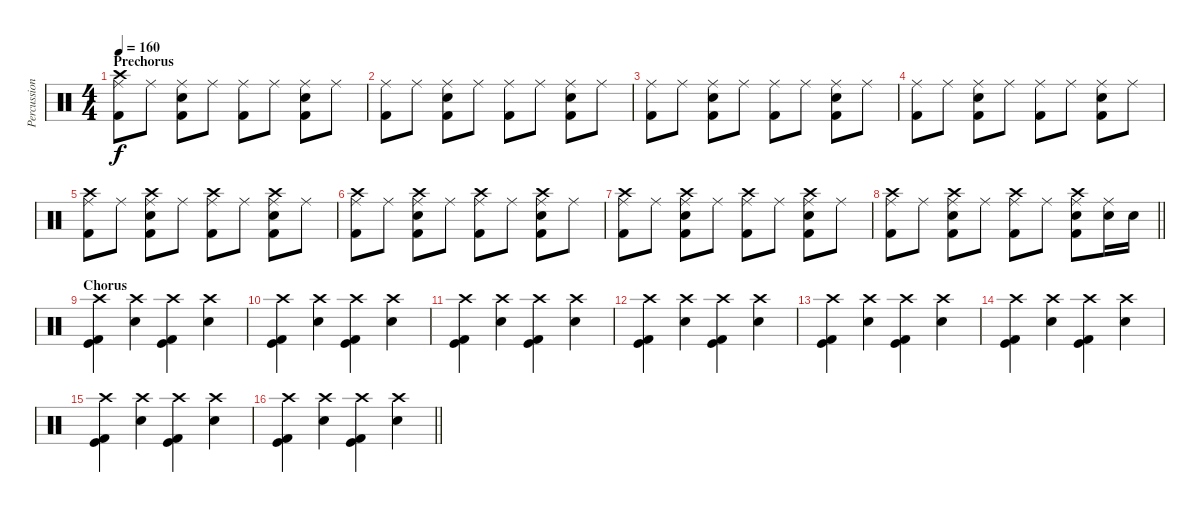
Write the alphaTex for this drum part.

\track ("Percussion" "Percussion") {instrument percussion}
\staff {score}
\articulation defaults
\ts (4 4)
\section ("" "Prechorus")
\tempo 160
\clef neutral
\ks c
("Ride (middle)" "Crash high (hit)" "Kick (hit) 2").8{dy f} "Ride (middle)".8 ("Ride (middle)" "Snare (hit) 2" "Kick (hit) 2").8 "Ride (middle)".8 ("Ride (middle)" "Kick (hit) 2").8 "Ride (middle)".8 ("Ride (middle)" "Snare (hit) 2" "Kick (hit) 2").8 "Ride (middle)".8 |
("Ride (middle)" "Kick (hit) 2").8 "Ride (middle)".8 ("Ride (middle)" "Snare (hit) 2" "Kick (hit) 2").8 "Ride (middle)".8 ("Ride (middle)" "Kick (hit) 2").8 "Ride (middle)".8 ("Ride (middle)" "Snare (hit) 2" "Kick (hit) 2").8 "Ride (middle)".8 |
("Ride (middle)" "Kick (hit) 2").8 "Ride (middle)".8 ("Ride (middle)" "Snare (hit) 2" "Kick (hit) 2").8 "Ride (middle)".8 ("Ride (middle)" "Kick (hit) 2").8 "Ride (middle)".8 ("Ride (middle)" "Snare (hit) 2" "Kick (hit) 2").8 "Ride (middle)".8 |
("Ride (middle)" "Kick (hit) 2").8 "Ride (middle)".8 ("Ride (middle)" "Snare (hit) 2" "Kick (hit) 2").8 "Ride (middle)".8 ("Ride (middle)" "Kick (hit) 2").8 "Ride (middle)".8 ("Ride (middle)" "Snare (hit) 2" "Kick (hit) 2").8 "Ride (middle)".8 |
("Ride (middle)" "Crash high (hit)" "Kick (hit) 2").8 "Ride (middle)".8 ("Ride (middle)" "Crash high (hit)" "Snare (hit) 2" "Kick (hit) 2").8 "Ride (middle)".8 ("Ride (middle)" "Crash high (hit)" "Kick (hit) 2").8 "Ride (middle)".8 ("Ride (middle)" "Crash high (hit)" "Snare (hit) 2" "Kick (hit) 2").8 "Ride (middle)".8 |
("Ride (middle)" "Crash high (hit)" "Kick (hit) 2").8 "Ride (middle)".8 ("Ride (middle)" "Crash high (hit)" "Snare (hit) 2" "Kick (hit) 2").8 "Ride (middle)".8 ("Ride (middle)" "Crash high (hit)" "Kick (hit) 2").8 "Ride (middle)".8 ("Ride (middle)" "Crash high (hit)" "Snare (hit) 2" "Kick (hit) 2").8 "Ride (middle)".8 |
("Ride (middle)" "Crash high (hit)" "Kick (hit) 2").8 "Ride (middle)".8 ("Ride (middle)" "Crash high (hit)" "Snare (hit) 2" "Kick (hit) 2").8 "Ride (middle)".8 ("Ride (middle)" "Crash high (hit)" "Kick (hit) 2").8 "Ride (middle)".8 ("Ride (middle)" "Crash high (hit)" "Snare (hit) 2" "Kick (hit) 2").8 "Ride (middle)".8 |
\barLineRight lightlight
("Ride (middle)" "Crash high (hit)" "Kick (hit) 2").8 "Ride (middle)".8 ("Ride (middle)" "Crash high (hit)" "Snare (hit) 2" "Kick (hit) 2").8 "Ride (middle)".8 ("Ride (middle)" "Crash high (hit)" "Kick (hit) 2").8 "Ride (middle)".8 ("Ride (middle)" "Crash high (hit)" "Snare (hit) 2" "Kick (hit) 2").8 ("Ride (middle)" "Snare (hit) 2").16 "Snare (hit) 2".16 |
\section ("" "Chorus")
("Crash high (hit)" "Kick (hit)" "Kick (hit) 2").4 ("Crash high (hit)" "Snare (hit) 2").4 ("Crash high (hit)" "Kick (hit)" "Kick (hit) 2").4 ("Crash high (hit)" "Snare (hit) 2").4 |
("Crash high (hit)" "Kick (hit)" "Kick (hit) 2").4 ("Crash high (hit)" "Snare (hit) 2").4 ("Crash high (hit)" "Kick (hit)" "Kick (hit) 2").4 ("Crash high (hit)" "Snare (hit) 2").4 |
("Crash high (hit)" "Kick (hit)" "Kick (hit) 2").4 ("Crash high (hit)" "Snare (hit) 2").4 ("Crash high (hit)" "Kick (hit)" "Kick (hit) 2").4 ("Crash high (hit)" "Snare (hit) 2").4 |
("Crash high (hit)" "Kick (hit)" "Kick (hit) 2").4 ("Crash high (hit)" "Snare (hit) 2").4 ("Crash high (hit)" "Kick (hit)" "Kick (hit) 2").4 ("Crash high (hit)" "Snare (hit) 2").4 |
("Crash high (hit)" "Kick (hit)" "Kick (hit) 2").4 ("Crash high (hit)" "Snare (hit) 2").4 ("Crash high (hit)" "Kick (hit)" "Kick (hit) 2").4 ("Crash high (hit)" "Snare (hit) 2").4 |
("Crash high (hit)" "Kick (hit)" "Kick (hit) 2").4 ("Crash high (hit)" "Snare (hit) 2").4 ("Crash high (hit)" "Kick (hit)" "Kick (hit) 2").4 ("Crash high (hit)" "Snare (hit) 2").4 |
("Crash high (hit)" "Kick (hit)" "Kick (hit) 2").4 ("Crash high (hit)" "Snare (hit) 2").4 ("Crash high (hit)" "Kick (hit)" "Kick (hit) 2").4 ("Crash high (hit)" "Snare (hit) 2").4 |
\barLineRight lightlight
("Crash high (hit)" "Kick (hit)" "Kick (hit) 2").4 ("Crash high (hit)" "Snare (hit) 2").4 ("Crash high (hit)" "Kick (hit)" "Kick (hit) 2").4 ("Crash high (hit)" "Snare (hit) 2").4
